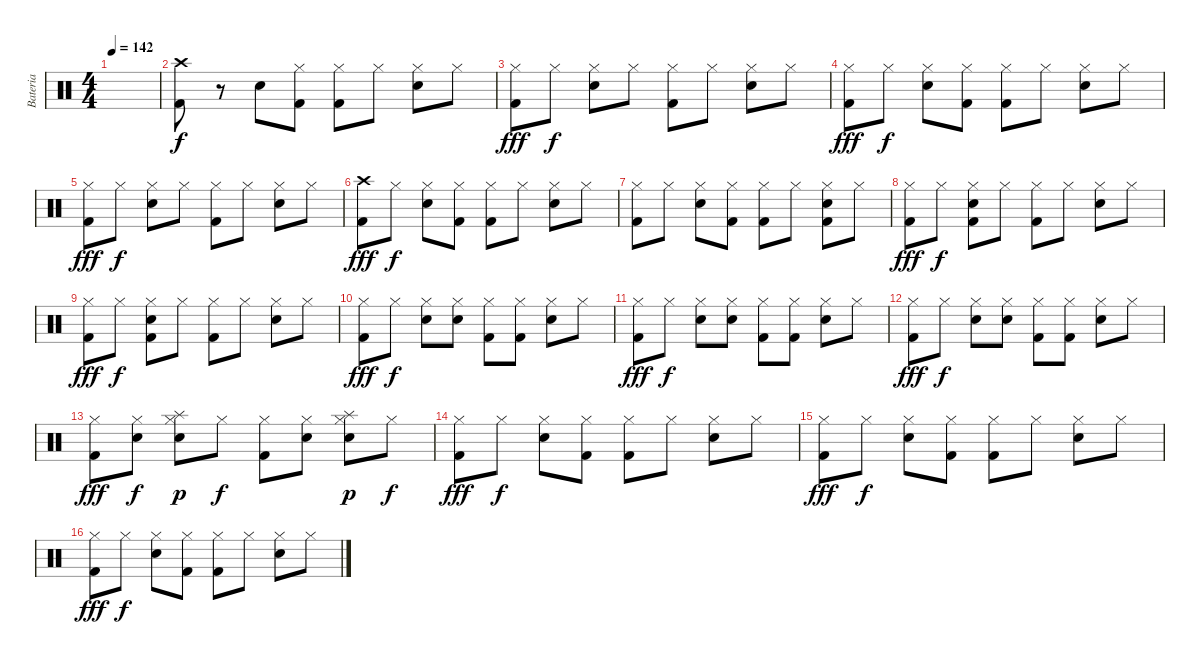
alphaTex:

\track ("Bateria" "Bateria") {instrument percussion}
\staff {score}
\articulation defaults
\ts (4 4)
\tempo 142
\clef neutral
\ks c
|
("Crash high (hit)" "Kick (hit) 2").8 r.8 "Electric Snare (hit)".8{dy f} ("Hi-Hat (closed)" "Kick (hit) 2").8 ("Hi-Hat (closed)" "Kick (hit) 2").8 "Hi-Hat (closed)".8 ("Hi-Hat (closed)" "Electric Snare (hit)").8 "Hi-Hat (closed)".8 |
("Hi-Hat (closed)" "Kick (hit) 2").8{dy fff} "Hi-Hat (closed)".8{dy f} ("Hi-Hat (closed)" "Electric Snare (hit)").8 "Hi-Hat (closed)".8 ("Hi-Hat (closed)" "Kick (hit) 2").8 "Hi-Hat (closed)".8 ("Hi-Hat (closed)" "Electric Snare (hit)").8 "Hi-Hat (closed)".8 |
("Hi-Hat (closed)" "Kick (hit) 2").8{dy fff} "Hi-Hat (closed)".8{dy f} ("Hi-Hat (closed)" "Electric Snare (hit)").8 ("Hi-Hat (closed)" "Kick (hit) 2").8 ("Hi-Hat (closed)" "Kick (hit) 2").8 "Hi-Hat (closed)".8 ("Hi-Hat (closed)" "Electric Snare (hit)").8 "Hi-Hat (closed)".8 |
("Hi-Hat (closed)" "Kick (hit) 2").8{dy fff} "Hi-Hat (closed)".8{dy f} ("Hi-Hat (closed)" "Electric Snare (hit)").8 "Hi-Hat (closed)".8 ("Hi-Hat (closed)" "Kick (hit) 2").8 "Hi-Hat (closed)".8 ("Hi-Hat (closed)" "Electric Snare (hit)").8 "Hi-Hat (closed)".8 |
("Crash high (hit)" "Kick (hit) 2").8{dy fff} "Hi-Hat (closed)".8{dy f} ("Hi-Hat (closed)" "Electric Snare (hit)").8 ("Hi-Hat (closed)" "Kick (hit) 2").8 ("Hi-Hat (closed)" "Kick (hit) 2").8 "Hi-Hat (closed)".8 ("Hi-Hat (closed)" "Electric Snare (hit)").8 "Hi-Hat (closed)".8 |
("Hi-Hat (closed)" "Kick (hit) 2").8 "Hi-Hat (closed)".8 ("Hi-Hat (closed)" "Electric Snare (hit)").8 ("Hi-Hat (closed)" "Kick (hit) 2").8 ("Hi-Hat (closed)" "Kick (hit) 2").8 "Hi-Hat (closed)".8 ("Hi-Hat (closed)" "Electric Snare (hit)" "Kick (hit) 2").8 "Hi-Hat (closed)".8 |
("Hi-Hat (closed)" "Kick (hit) 2").8{dy fff} "Hi-Hat (closed)".8{dy f} ("Hi-Hat (closed)" "Electric Snare (hit)" "Kick (hit) 2").8 "Hi-Hat (closed)".8 ("Hi-Hat (closed)" "Kick (hit) 2").8 "Hi-Hat (closed)".8 ("Hi-Hat (closed)" "Electric Snare (hit)").8 "Hi-Hat (closed)".8 |
("Hi-Hat (closed)" "Kick (hit) 2").8{dy fff} "Hi-Hat (closed)".8{dy f} ("Hi-Hat (closed)" "Electric Snare (hit)" "Kick (hit) 2").8 "Hi-Hat (closed)".8 ("Hi-Hat (closed)" "Kick (hit) 2").8 "Hi-Hat (closed)".8 ("Hi-Hat (closed)" "Electric Snare (hit)").8 "Hi-Hat (closed)".8 |
("Hi-Hat (closed)" "Kick (hit) 2").8{dy fff} "Hi-Hat (closed)".8{dy f} ("Hi-Hat (closed)" "Electric Snare (hit)").8 ("Hi-Hat (closed)" "Electric Snare (hit)").8 ("Hi-Hat (closed)" "Kick (hit) 2").8 ("Hi-Hat (closed)" "Kick (hit) 2").8 ("Hi-Hat (closed)" "Electric Snare (hit)").8 "Hi-Hat (closed)".8 |
("Hi-Hat (closed)" "Kick (hit) 2").8{dy fff} "Hi-Hat (closed)".8{dy f} ("Hi-Hat (closed)" "Electric Snare (hit)").8 ("Hi-Hat (closed)" "Electric Snare (hit)").8 ("Hi-Hat (closed)" "Kick (hit) 2").8 ("Hi-Hat (closed)" "Kick (hit) 2").8 ("Hi-Hat (closed)" "Electric Snare (hit)").8 "Hi-Hat (closed)".8 |
("Hi-Hat (closed)" "Kick (hit) 2").8{dy fff} "Hi-Hat (closed)".8{dy f} ("Hi-Hat (closed)" "Electric Snare (hit)").8 ("Hi-Hat (closed)" "Electric Snare (hit)").8 ("Hi-Hat (closed)" "Kick (hit) 2").8 ("Hi-Hat (closed)" "Kick (hit) 2").8 ("Hi-Hat (closed)" "Electric Snare (hit)").8 "Hi-Hat (closed)".8 |
("Hi-Hat (closed)" "Kick (hit) 2").8{dy fff} ("Hi-Hat (closed)" "Electric Snare (hit)").8{dy f} ("Splash (hit)" "Hi-Hat (closed)" "Electric Snare (hit)").8{dy p} "Hi-Hat (closed)".8{dy f} ("Hi-Hat (closed)" "Kick (hit) 2").8 ("Hi-Hat (closed)" "Electric Snare (hit)").8 ("Splash (hit)" "Hi-Hat (closed)" "Electric Snare (hit)").8{dy p} "Hi-Hat (closed)".8{dy f} |
("Hi-Hat (closed)" "Kick (hit) 2").8{dy fff} "Hi-Hat (closed)".8{dy f} ("Hi-Hat (closed)" "Electric Snare (hit)").8 ("Hi-Hat (closed)" "Kick (hit) 2").8 ("Hi-Hat (closed)" "Kick (hit) 2").8 "Hi-Hat (closed)".8 ("Hi-Hat (closed)" "Electric Snare (hit)").8 "Hi-Hat (closed)".8 |
("Hi-Hat (closed)" "Kick (hit) 2").8{dy fff} "Hi-Hat (closed)".8{dy f} ("Hi-Hat (closed)" "Electric Snare (hit)").8 ("Hi-Hat (closed)" "Kick (hit) 2").8 ("Hi-Hat (closed)" "Kick (hit) 2").8 "Hi-Hat (closed)".8 ("Hi-Hat (closed)" "Electric Snare (hit)").8 "Hi-Hat (closed)".8 |
("Hi-Hat (closed)" "Kick (hit) 2").8{dy fff} "Hi-Hat (closed)".8{dy f} ("Hi-Hat (closed)" "Electric Snare (hit)").8 ("Hi-Hat (closed)" "Kick (hit) 2").8 ("Hi-Hat (closed)" "Kick (hit) 2").8 "Hi-Hat (closed)".8 ("Hi-Hat (closed)" "Electric Snare (hit)").8 "Hi-Hat (closed)".8
